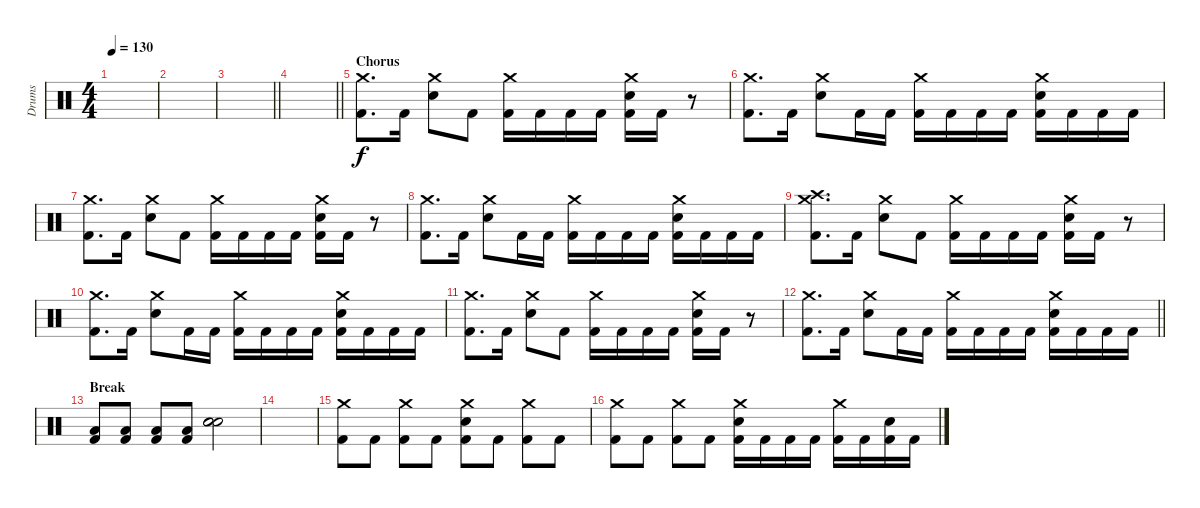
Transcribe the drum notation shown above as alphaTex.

\track ("Drums" "Drums") {instrument percussion}
\staff {score}
\articulation defaults
\ts (4 4)
\tempo 130
\clef neutral
\ks c
|
|
\barLineRight lightlight
|
\barLineRight lightlight
|
\section ("" "Chorus")
("Crash medium (hit)" "Kick (hit) 2").8{d} "Kick (hit) 2".16 ("Crash medium (hit)" "Electric Snare (hit)").8 "Kick (hit) 2".8 ("Crash medium (hit)" "Kick (hit) 2").16 "Kick (hit) 2".16 "Kick (hit) 2".16 "Kick (hit) 2".16 ("Crash medium (hit)" "Electric Snare (hit)" "Kick (hit) 2").16 "Kick (hit) 2".16 r.8 |
("Crash medium (hit)" "Kick (hit) 2").8{d} "Kick (hit) 2".16 ("Crash medium (hit)" "Electric Snare (hit)").8 "Kick (hit) 2".16 "Kick (hit) 2".16 ("Crash medium (hit)" "Kick (hit) 2").16 "Kick (hit) 2".16 "Kick (hit) 2".16 "Kick (hit) 2".16 ("Crash medium (hit)" "Electric Snare (hit)" "Kick (hit) 2").16 "Kick (hit) 2".16 "Kick (hit) 2".16 "Kick (hit) 2".16 |
("Crash medium (hit)" "Kick (hit) 2").8{d} "Kick (hit) 2".16 ("Crash medium (hit)" "Electric Snare (hit)").8 "Kick (hit) 2".8 ("Crash medium (hit)" "Kick (hit) 2").16 "Kick (hit) 2".16 "Kick (hit) 2".16 "Kick (hit) 2".16 ("Crash medium (hit)" "Electric Snare (hit)" "Kick (hit) 2").16 "Kick (hit) 2".16 r.8 |
("Crash medium (hit)" "Kick (hit) 2").8{d} "Kick (hit) 2".16 ("Crash medium (hit)" "Electric Snare (hit)").8 "Kick (hit) 2".16 "Kick (hit) 2".16 ("Crash medium (hit)" "Kick (hit) 2").16 "Kick (hit) 2".16 "Kick (hit) 2".16 "Kick (hit) 2".16 ("Crash medium (hit)" "Electric Snare (hit)" "Kick (hit) 2").16 "Kick (hit) 2".16 "Kick (hit) 2".16 "Kick (hit) 2".16 |
("Crash medium (hit)" "Crash high (hit)" "Kick (hit) 2").8{d} "Kick (hit) 2".16 ("Crash medium (hit)" "Electric Snare (hit)").8 "Kick (hit) 2".8 ("Crash medium (hit)" "Kick (hit) 2").16 "Kick (hit) 2".16 "Kick (hit) 2".16 "Kick (hit) 2".16 ("Crash medium (hit)" "Electric Snare (hit)" "Kick (hit) 2").16 "Kick (hit) 2".16 r.8 |
("Crash medium (hit)" "Kick (hit) 2").8{d} "Kick (hit) 2".16 ("Crash medium (hit)" "Electric Snare (hit)").8 "Kick (hit) 2".16 "Kick (hit) 2".16 ("Crash medium (hit)" "Kick (hit) 2").16 "Kick (hit) 2".16 "Kick (hit) 2".16 "Kick (hit) 2".16 ("Crash medium (hit)" "Electric Snare (hit)" "Kick (hit) 2").16 "Kick (hit) 2".16 "Kick (hit) 2".16 "Kick (hit) 2".16 |
("Crash medium (hit)" "Kick (hit) 2").8{d} "Kick (hit) 2".16 ("Crash medium (hit)" "Electric Snare (hit)").8 "Kick (hit) 2".8 ("Crash medium (hit)" "Kick (hit) 2").16 "Kick (hit) 2".16 "Kick (hit) 2".16 "Kick (hit) 2".16 ("Crash medium (hit)" "Electric Snare (hit)" "Kick (hit) 2").16 "Kick (hit) 2".16 r.8 |
\barLineRight lightlight
("Crash medium (hit)" "Kick (hit) 2").8{d} "Kick (hit) 2".16 ("Crash medium (hit)" "Electric Snare (hit)").8 "Kick (hit) 2".16 "Kick (hit) 2".16 ("Crash medium (hit)" "Kick (hit) 2").16 "Kick (hit) 2".16 "Kick (hit) 2".16 "Kick (hit) 2".16 ("Crash medium (hit)" "Electric Snare (hit)" "Kick (hit) 2").16 "Kick (hit) 2".16 "Kick (hit) 2".16 "Kick (hit) 2".16 |
\section ("" "Break")
("Low Floor Tom (hit)" "Kick (hit) 2").8 ("Low Floor Tom (hit)" "Kick (hit) 2").8 ("Low Floor Tom (hit)" "Kick (hit) 2").8 ("Low Floor Tom (hit)" "Kick (hit) 2").8 ("Electric Snare (hit)" "Electric Snare (hit)" "Electric Snare (hit)").2 |
|
("Crash medium (hit)" "Kick (hit) 2").8 "Kick (hit) 2".8 ("Crash medium (hit)" "Kick (hit) 2").8 "Kick (hit) 2".8 ("Crash medium (hit)" "Electric Snare (hit)" "Kick (hit) 2").8 "Kick (hit) 2".8 ("Crash medium (hit)" "Kick (hit) 2").8 "Kick (hit) 2".8 |
("Crash medium (hit)" "Kick (hit) 2").8 "Kick (hit) 2".8 ("Crash medium (hit)" "Kick (hit) 2").8 "Kick (hit) 2".8 ("Crash medium (hit)" "Electric Snare (hit)" "Kick (hit) 2").16 "Kick (hit) 2".16 "Kick (hit) 2".16 "Kick (hit) 2".16 ("Crash medium (hit)" "Kick (hit) 2").16 "Kick (hit) 2".16 ("Electric Snare (hit)" "Kick (hit) 2").16 "Kick (hit) 2".16
